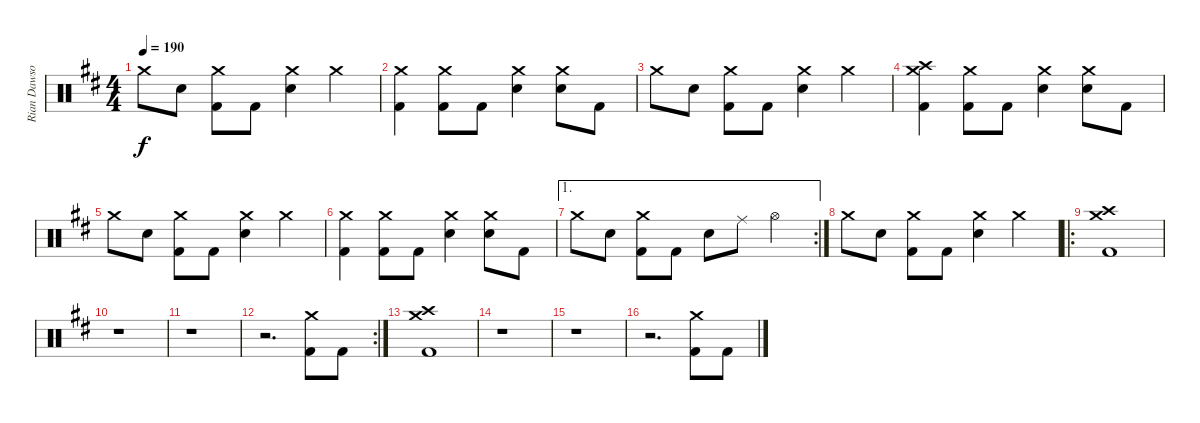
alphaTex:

\track ("Rian Dawson" "Rian Dawso") {instrument percussion}
\staff {score}
\articulation defaults
\ts (4 4)
\tempo 190
\clef neutral
\ks d "Crash medium (hit)".8{dy f} "Electric Snare (hit)".8
("Crash medium (hit)" "Kick (hit) 2").8 "Kick (hit) 2".8 ("Crash medium (hit)" "Electric Snare (hit)").4 "Crash medium (hit)".4 |
("Crash medium (hit)" "Kick (hit) 2").4 ("Crash medium (hit)" "Kick (hit) 2").8 "Kick (hit) 2".8 ("Crash medium (hit)" "Electric Snare (hit)").4 ("Crash medium (hit)" "Electric Snare (hit)").8 "Kick (hit) 2".8 |
"Crash medium (hit)".8 "Electric Snare (hit)".8 ("Crash medium (hit)" "Kick (hit) 2").8 "Kick (hit) 2".8 ("Crash medium (hit)" "Electric Snare (hit)").4 "Crash medium (hit)".4 |
("Crash high (hit)" "Crash medium (hit)" "Kick (hit) 2").4 ("Crash medium (hit)" "Kick (hit) 2").8 "Kick (hit) 2".8 ("Crash medium (hit)" "Electric Snare (hit)").4 ("Crash medium (hit)" "Electric Snare (hit)").8 "Kick (hit) 2".8 |
"Crash medium (hit)".8 "Electric Snare (hit)".8 ("Crash medium (hit)" "Kick (hit) 2").8 "Kick (hit) 2".8 ("Crash medium (hit)" "Electric Snare (hit)").4 "Crash medium (hit)".4 |
("Crash medium (hit)" "Kick (hit) 2").4 ("Crash medium (hit)" "Kick (hit) 2").8 "Kick (hit) 2".8 ("Crash medium (hit)" "Electric Snare (hit)").4 ("Crash medium (hit)" "Electric Snare (hit)").8 "Kick (hit) 2".8 |
\ae 1
\rc 2 "Crash medium (hit)".8 "Electric Snare (hit)".8
("Crash medium (hit)" "Kick (hit) 2").8 "Kick (hit) 2".8 "Electric Snare (hit)".8 "Ride (middle)".8 "Hi-Hat (open)".4 |
"Crash medium (hit)".8 "Electric Snare (hit)".8 ("Crash medium (hit)" "Kick (hit) 2").8 "Kick (hit) 2".8 ("Crash medium (hit)" "Electric Snare (hit)").4 "Crash medium (hit)".4 |
\ro
("Crash high (hit)" "Crash medium (hit)" "Kick (hit) 2").1 |
r.1 |
r.1 |
\rc 2
r.2{d} ("Crash medium (hit)" "Kick (hit) 2").8 "Kick (hit) 2".8 |
("Crash high (hit)" "Crash medium (hit)" "Kick (hit) 2").1 |
r.1 |
r.1 |
r.2{d} ("Crash medium (hit)" "Kick (hit) 2").8 "Kick (hit) 2".8
